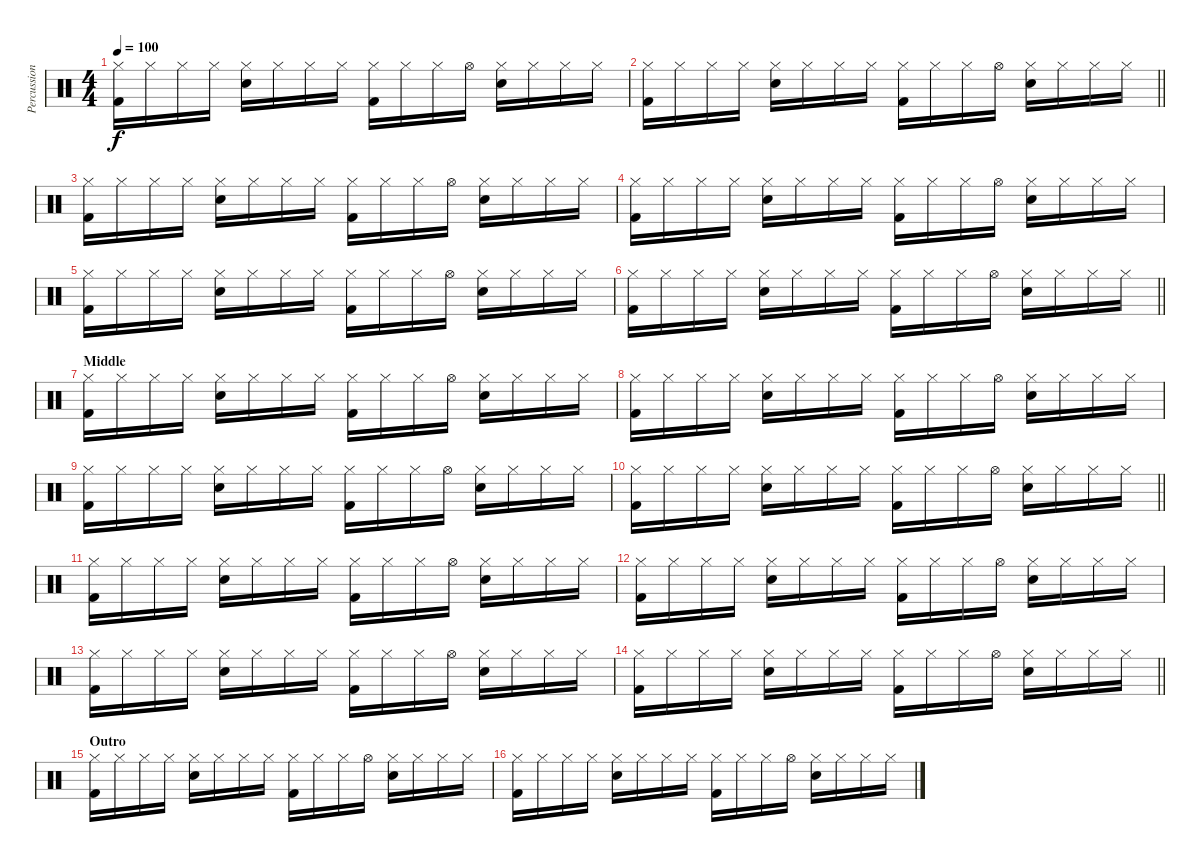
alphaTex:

\track ("Percussion" "Percussion") {instrument percussion}
\staff {score}
\articulation defaults
\ts (4 4)
\tempo 100
\clef neutral
\ks c
("Kick (hit) 2" "Hi-Hat (closed)").16{dy f} "Hi-Hat (closed)".16 "Hi-Hat (closed)".16 "Hi-Hat (closed)".16 ("Electric Snare (hit)" "Hi-Hat (closed)").16 "Hi-Hat (closed)".16 "Hi-Hat (closed)".16 "Hi-Hat (closed)".16 ("Kick (hit) 2" "Hi-Hat (closed)").16 "Hi-Hat (closed)".16 "Hi-Hat (closed)".16 "Hi-Hat (open)".16 ("Hi-Hat (closed)" "Electric Snare (hit)").16 "Hi-Hat (closed)".16 "Hi-Hat (closed)".16 "Hi-Hat (closed)".16 |
\barLineRight lightlight
("Kick (hit) 2" "Hi-Hat (closed)").16 "Hi-Hat (closed)".16 "Hi-Hat (closed)".16 "Hi-Hat (closed)".16 ("Electric Snare (hit)" "Hi-Hat (closed)").16 "Hi-Hat (closed)".16 "Hi-Hat (closed)".16 "Hi-Hat (closed)".16 ("Kick (hit) 2" "Hi-Hat (closed)").16 "Hi-Hat (closed)".16 "Hi-Hat (closed)".16 "Hi-Hat (open)".16 ("Hi-Hat (closed)" "Electric Snare (hit)").16 "Hi-Hat (closed)".16 "Hi-Hat (closed)".16 "Hi-Hat (closed)".16 |
("Kick (hit) 2" "Hi-Hat (closed)").16 "Hi-Hat (closed)".16 "Hi-Hat (closed)".16 "Hi-Hat (closed)".16 ("Electric Snare (hit)" "Hi-Hat (closed)").16 "Hi-Hat (closed)".16 "Hi-Hat (closed)".16 "Hi-Hat (closed)".16 ("Kick (hit) 2" "Hi-Hat (closed)").16 "Hi-Hat (closed)".16 "Hi-Hat (closed)".16 "Hi-Hat (open)".16 ("Hi-Hat (closed)" "Electric Snare (hit)").16 "Hi-Hat (closed)".16 "Hi-Hat (closed)".16 "Hi-Hat (closed)".16 |
("Kick (hit) 2" "Hi-Hat (closed)").16 "Hi-Hat (closed)".16 "Hi-Hat (closed)".16 "Hi-Hat (closed)".16 ("Electric Snare (hit)" "Hi-Hat (closed)").16 "Hi-Hat (closed)".16 "Hi-Hat (closed)".16 "Hi-Hat (closed)".16 ("Kick (hit) 2" "Hi-Hat (closed)").16 "Hi-Hat (closed)".16 "Hi-Hat (closed)".16 "Hi-Hat (open)".16 ("Hi-Hat (closed)" "Electric Snare (hit)").16 "Hi-Hat (closed)".16 "Hi-Hat (closed)".16 "Hi-Hat (closed)".16 |
("Kick (hit) 2" "Hi-Hat (closed)").16 "Hi-Hat (closed)".16 "Hi-Hat (closed)".16 "Hi-Hat (closed)".16 ("Electric Snare (hit)" "Hi-Hat (closed)").16 "Hi-Hat (closed)".16 "Hi-Hat (closed)".16 "Hi-Hat (closed)".16 ("Kick (hit) 2" "Hi-Hat (closed)").16 "Hi-Hat (closed)".16 "Hi-Hat (closed)".16 "Hi-Hat (open)".16 ("Hi-Hat (closed)" "Electric Snare (hit)").16 "Hi-Hat (closed)".16 "Hi-Hat (closed)".16 "Hi-Hat (closed)".16 |
\barLineRight lightlight
("Kick (hit) 2" "Hi-Hat (closed)").16 "Hi-Hat (closed)".16 "Hi-Hat (closed)".16 "Hi-Hat (closed)".16 ("Electric Snare (hit)" "Hi-Hat (closed)").16 "Hi-Hat (closed)".16 "Hi-Hat (closed)".16 "Hi-Hat (closed)".16 ("Kick (hit) 2" "Hi-Hat (closed)").16 "Hi-Hat (closed)".16 "Hi-Hat (closed)".16 "Hi-Hat (open)".16 ("Hi-Hat (closed)" "Electric Snare (hit)").16 "Hi-Hat (closed)".16 "Hi-Hat (closed)".16 "Hi-Hat (closed)".16 |
\section ("" "Middle")
("Kick (hit) 2" "Hi-Hat (closed)").16 "Hi-Hat (closed)".16 "Hi-Hat (closed)".16 "Hi-Hat (closed)".16 ("Electric Snare (hit)" "Hi-Hat (closed)").16 "Hi-Hat (closed)".16 "Hi-Hat (closed)".16 "Hi-Hat (closed)".16 ("Kick (hit) 2" "Hi-Hat (closed)").16 "Hi-Hat (closed)".16 "Hi-Hat (closed)".16 "Hi-Hat (open)".16 ("Hi-Hat (closed)" "Electric Snare (hit)").16 "Hi-Hat (closed)".16 "Hi-Hat (closed)".16 "Hi-Hat (closed)".16 |
("Kick (hit) 2" "Hi-Hat (closed)").16 "Hi-Hat (closed)".16 "Hi-Hat (closed)".16 "Hi-Hat (closed)".16 ("Electric Snare (hit)" "Hi-Hat (closed)").16 "Hi-Hat (closed)".16 "Hi-Hat (closed)".16 "Hi-Hat (closed)".16 ("Kick (hit) 2" "Hi-Hat (closed)").16 "Hi-Hat (closed)".16 "Hi-Hat (closed)".16 "Hi-Hat (open)".16 ("Hi-Hat (closed)" "Electric Snare (hit)").16 "Hi-Hat (closed)".16 "Hi-Hat (closed)".16 "Hi-Hat (closed)".16 |
("Kick (hit) 2" "Hi-Hat (closed)").16 "Hi-Hat (closed)".16 "Hi-Hat (closed)".16 "Hi-Hat (closed)".16 ("Electric Snare (hit)" "Hi-Hat (closed)").16 "Hi-Hat (closed)".16 "Hi-Hat (closed)".16 "Hi-Hat (closed)".16 ("Kick (hit) 2" "Hi-Hat (closed)").16 "Hi-Hat (closed)".16 "Hi-Hat (closed)".16 "Hi-Hat (open)".16 ("Hi-Hat (closed)" "Electric Snare (hit)").16 "Hi-Hat (closed)".16 "Hi-Hat (closed)".16 "Hi-Hat (closed)".16 |
\barLineRight lightlight
("Kick (hit) 2" "Hi-Hat (closed)").16 "Hi-Hat (closed)".16 "Hi-Hat (closed)".16 "Hi-Hat (closed)".16 ("Electric Snare (hit)" "Hi-Hat (closed)").16 "Hi-Hat (closed)".16 "Hi-Hat (closed)".16 "Hi-Hat (closed)".16 ("Kick (hit) 2" "Hi-Hat (closed)").16 "Hi-Hat (closed)".16 "Hi-Hat (closed)".16 "Hi-Hat (open)".16 ("Hi-Hat (closed)" "Electric Snare (hit)").16 "Hi-Hat (closed)".16 "Hi-Hat (closed)".16 "Hi-Hat (closed)".16 |
("Kick (hit) 2" "Hi-Hat (closed)").16 "Hi-Hat (closed)".16 "Hi-Hat (closed)".16 "Hi-Hat (closed)".16 ("Electric Snare (hit)" "Hi-Hat (closed)").16 "Hi-Hat (closed)".16 "Hi-Hat (closed)".16 "Hi-Hat (closed)".16 ("Kick (hit) 2" "Hi-Hat (closed)").16 "Hi-Hat (closed)".16 "Hi-Hat (closed)".16 "Hi-Hat (open)".16 ("Hi-Hat (closed)" "Electric Snare (hit)").16 "Hi-Hat (closed)".16 "Hi-Hat (closed)".16 "Hi-Hat (closed)".16 |
("Kick (hit) 2" "Hi-Hat (closed)").16 "Hi-Hat (closed)".16 "Hi-Hat (closed)".16 "Hi-Hat (closed)".16 ("Electric Snare (hit)" "Hi-Hat (closed)").16 "Hi-Hat (closed)".16 "Hi-Hat (closed)".16 "Hi-Hat (closed)".16 ("Kick (hit) 2" "Hi-Hat (closed)").16 "Hi-Hat (closed)".16 "Hi-Hat (closed)".16 "Hi-Hat (open)".16 ("Hi-Hat (closed)" "Electric Snare (hit)").16 "Hi-Hat (closed)".16 "Hi-Hat (closed)".16 "Hi-Hat (closed)".16 |
("Kick (hit) 2" "Hi-Hat (closed)").16 "Hi-Hat (closed)".16 "Hi-Hat (closed)".16 "Hi-Hat (closed)".16 ("Electric Snare (hit)" "Hi-Hat (closed)").16 "Hi-Hat (closed)".16 "Hi-Hat (closed)".16 "Hi-Hat (closed)".16 ("Kick (hit) 2" "Hi-Hat (closed)").16 "Hi-Hat (closed)".16 "Hi-Hat (closed)".16 "Hi-Hat (open)".16 ("Hi-Hat (closed)" "Electric Snare (hit)").16 "Hi-Hat (closed)".16 "Hi-Hat (closed)".16 "Hi-Hat (closed)".16 |
\barLineRight lightlight
("Kick (hit) 2" "Hi-Hat (closed)").16 "Hi-Hat (closed)".16 "Hi-Hat (closed)".16 "Hi-Hat (closed)".16 ("Electric Snare (hit)" "Hi-Hat (closed)").16 "Hi-Hat (closed)".16 "Hi-Hat (closed)".16 "Hi-Hat (closed)".16 ("Kick (hit) 2" "Hi-Hat (closed)").16 "Hi-Hat (closed)".16 "Hi-Hat (closed)".16 "Hi-Hat (open)".16 ("Hi-Hat (closed)" "Electric Snare (hit)").16 "Hi-Hat (closed)".16 "Hi-Hat (closed)".16 "Hi-Hat (closed)".16 |
\section ("" "Outro")
("Kick (hit) 2" "Hi-Hat (closed)").16 "Hi-Hat (closed)".16 "Hi-Hat (closed)".16 "Hi-Hat (closed)".16 ("Electric Snare (hit)" "Hi-Hat (closed)").16 "Hi-Hat (closed)".16 "Hi-Hat (closed)".16 "Hi-Hat (closed)".16 ("Kick (hit) 2" "Hi-Hat (closed)").16 "Hi-Hat (closed)".16 "Hi-Hat (closed)".16 "Hi-Hat (open)".16 ("Hi-Hat (closed)" "Electric Snare (hit)").16 "Hi-Hat (closed)".16 "Hi-Hat (closed)".16 "Hi-Hat (closed)".16 |
("Kick (hit) 2" "Hi-Hat (closed)").16 "Hi-Hat (closed)".16 "Hi-Hat (closed)".16 "Hi-Hat (closed)".16 ("Electric Snare (hit)" "Hi-Hat (closed)").16 "Hi-Hat (closed)".16 "Hi-Hat (closed)".16 "Hi-Hat (closed)".16 ("Kick (hit) 2" "Hi-Hat (closed)").16 "Hi-Hat (closed)".16 "Hi-Hat (closed)".16 "Hi-Hat (open)".16 ("Hi-Hat (closed)" "Electric Snare (hit)").16 "Hi-Hat (closed)".16 "Hi-Hat (closed)".16 "Hi-Hat (closed)".16
